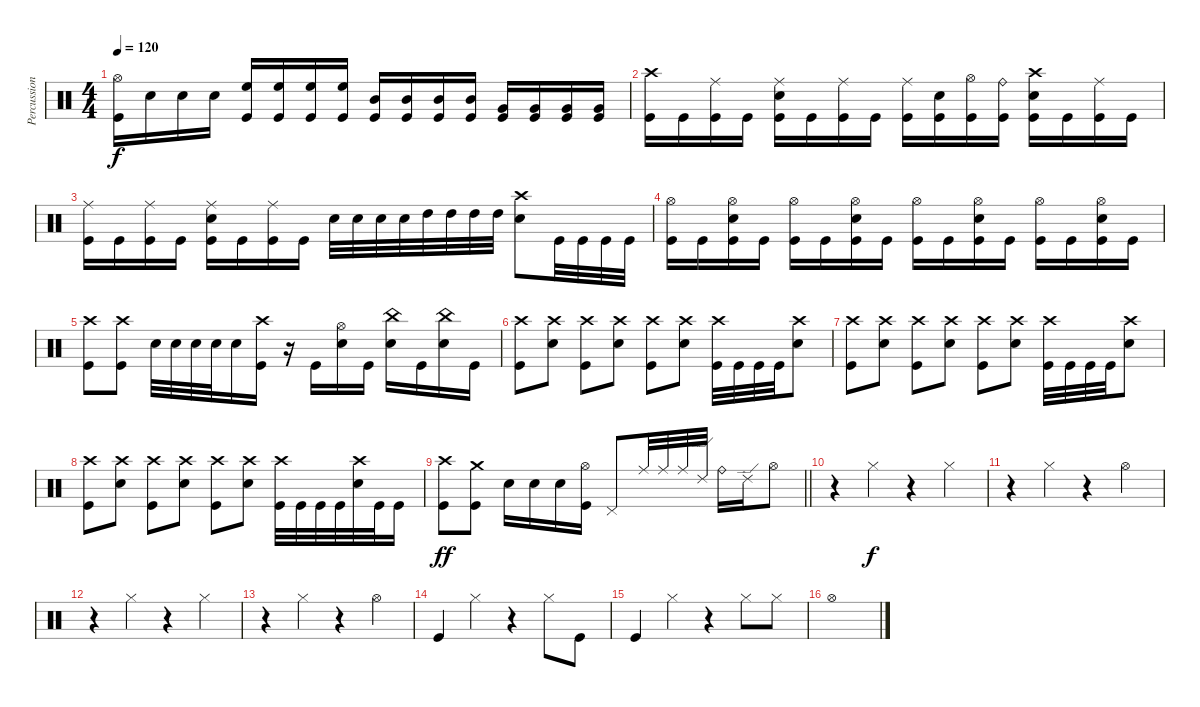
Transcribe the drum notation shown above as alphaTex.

\track ("Percussion" "Percussion") {instrument percussion}
\staff {score}
\articulation defaults
\ts (4 4)
\tempo 120
\clef neutral
\ks c
("Hi-Hat (open)" "Kick (hit)").16{dy f} "Snare (hit) 2".16 "Snare (hit) 2".16 "Snare (hit) 2".16 ("High Floor Tom (hit)" "Kick (hit)").16 ("High Floor Tom (hit)" "Kick (hit)").16 ("High Floor Tom (hit)" "Kick (hit)").16 ("High Floor Tom (hit)" "Kick (hit)").16 ("Mid Tom (hit)" "Kick (hit)").16 ("Mid Tom (hit)" "Kick (hit)").16 ("Mid Tom (hit)" "Kick (hit)").16 ("Mid Tom (hit)" "Kick (hit)").16 ("Very Low Tom (hit)" "Kick (hit)").16 ("Very Low Tom (hit)" "Kick (hit)").16 ("Kick (hit)" "Very Low Tom (hit)").16 ("Very Low Tom (hit)" "Kick (hit)").16 |
("Kick (hit)" "Crash high (hit)").16 "Kick (hit)".16 ("Kick (hit)" "Ride (middle)").16 "Kick (hit)".16 ("Kick (hit)" "Snare (hit) 2" "Ride (middle)").16 "Kick (hit)".16 ("Kick (hit)" "Ride (middle)").16 "Kick (hit)".16 ("Kick (hit)" "Ride (middle)").16 ("Kick (hit)" "Snare (hit) 2").16 ("Kick (hit)" "Hi-Hat (open)").16 ("Kick (hit)" "Ride (bell)").16 ("Kick (hit)" "Crash high (hit)" "Snare (hit) 2").16 "Kick (hit)".16 ("Kick (hit)" "Ride (middle)").16 "Kick (hit)".16 |
("Kick (hit)" "Ride (middle)").16 "Kick (hit)".16 ("Kick (hit)" "Ride (middle)").16 "Kick (hit)".16 ("Kick (hit)" "Snare (hit) 2" "Ride (middle)").16 "Kick (hit)".16 ("Kick (hit)" "Ride (middle)").16 "Kick (hit)".16 "Snare (hit) 2".32 "Snare (hit) 2".32 "Snare (hit) 2".32 "Snare (hit) 2".32 "High Tom (hit)".32 "High Tom (hit)".32 "High Tom (hit)".32 "High Tom (hit)".32 ("Snare (hit) 2" "Crash high (hit)").8 "Kick (hit)".32 "Kick (hit)".32 "Kick (hit)".32 "Kick (hit)".32 |
("Kick (hit)" "Hi-Hat (open)").16 "Kick (hit)".16 ("Kick (hit)" "Hi-Hat (open)" "Snare (hit) 2").16 "Kick (hit)".16 ("Kick (hit)" "Hi-Hat (open)").16 "Kick (hit)".16 ("Kick (hit)" "Hi-Hat (open)" "Snare (hit) 2").16 "Kick (hit)".16 ("Kick (hit)" "Hi-Hat (open)").16 "Kick (hit)".16 ("Kick (hit)" "Hi-Hat (open)" "Snare (hit) 2").16 "Kick (hit)".16 ("Kick (hit)" "Hi-Hat (open)").16 "Kick (hit)".16 ("Kick (hit)" "Hi-Hat (open)" "Snare (hit) 2").16 "Kick (hit)".16 |
("Crash high (hit)" "Kick (hit)").8 ("Kick (hit)" "Crash high (hit)").8 "Snare (hit) 2".32 "Snare (hit) 2".32 "Snare (hit) 2".32 "Snare (hit) 2".32 "Snare (hit) 2".16 ("Crash high (hit)" "Kick (hit)").16 r.16 "Kick (hit)".16 ("Snare (hit) 2" "Hi-Hat (open)").16 "Kick (hit)".16 ("Snare (hit) 2" "China (hit)").16 "Kick (hit)".16 ("Snare (hit) 2" "China (hit)").16 "Kick (hit)".16 |
("Crash high (hit)" "Kick (hit)").8 ("Crash high (hit)" "Snare (hit) 2").8 ("Crash high (hit)" "Kick (hit)").8 ("Crash high (hit)" "Snare (hit) 2").8 ("Crash high (hit)" "Kick (hit)").8 ("Crash high (hit)" "Snare (hit) 2").8 ("Kick (hit)" "Crash high (hit)").32 "Kick (hit)".32 "Kick (hit)".32 "Kick (hit)".32 ("Crash high (hit)" "Snare (hit) 2").8 |
("Crash high (hit)" "Kick (hit)").8 ("Crash high (hit)" "Snare (hit) 2").8 ("Crash high (hit)" "Kick (hit)").8 ("Crash high (hit)" "Snare (hit) 2").8 ("Crash high (hit)" "Kick (hit)").8 ("Crash high (hit)" "Snare (hit) 2").8 ("Kick (hit)" "Crash high (hit)").32 "Kick (hit)".32 "Kick (hit)".32 "Kick (hit)".32 ("Crash high (hit)" "Snare (hit) 2").8 |
("Crash high (hit)" "Kick (hit)").8 ("Crash high (hit)" "Snare (hit) 2").8 ("Crash high (hit)" "Kick (hit)").8 ("Crash high (hit)" "Snare (hit) 2").8 ("Crash high (hit)" "Kick (hit)").8 ("Crash high (hit)" "Snare (hit) 2").8 ("Kick (hit)" "Crash high (hit)").32 "Kick (hit)".32 "Kick (hit)".32 "Kick (hit)".32 ("Crash high (hit)" "Snare (hit) 2").32 "Kick (hit)".32 "Kick (hit)".16 |
\barLineRight lightlight
("Crash high (hit)" "Kick (hit)").8{dy ff} ("Crash medium (hit)" "Kick (hit)").8 "Snare (hit) 2".16 "Snare (hit) 2".16 "Snare (hit) 2".16 ("Hi-Hat (open)" "Kick (hit)").16 "Pedal Hi-Hat (hit)".8 "Ride (middle)".32 "Ride (middle)".32 "Ride (middle)".32 "Ride (edge) 2".32 "Ride (bell)".16 "Ride (edge) 2".16 "Hi-Hat (open)".8 |
r.4 "Hi-Hat (closed)".4{dy f} r.4 "Hi-Hat (closed)".4 |
r.4 "Hi-Hat (closed)".4 r.4 "Hi-Hat (open)".4 |
r.4 "Hi-Hat (closed)".4 r.4 "Hi-Hat (closed)".4 |
r.4 "Hi-Hat (closed)".4 r.4 "Hi-Hat (open)".4 |
"Kick (hit)".4 "Hi-Hat (closed)".4 r.4 "Hi-Hat (closed)".8 "Kick (hit)".8 |
"Kick (hit)".4 "Hi-Hat (closed)".4 r.4 "Hi-Hat (closed)".8 "Hi-Hat (closed)".8 |
"Hi-Hat (open)".1
